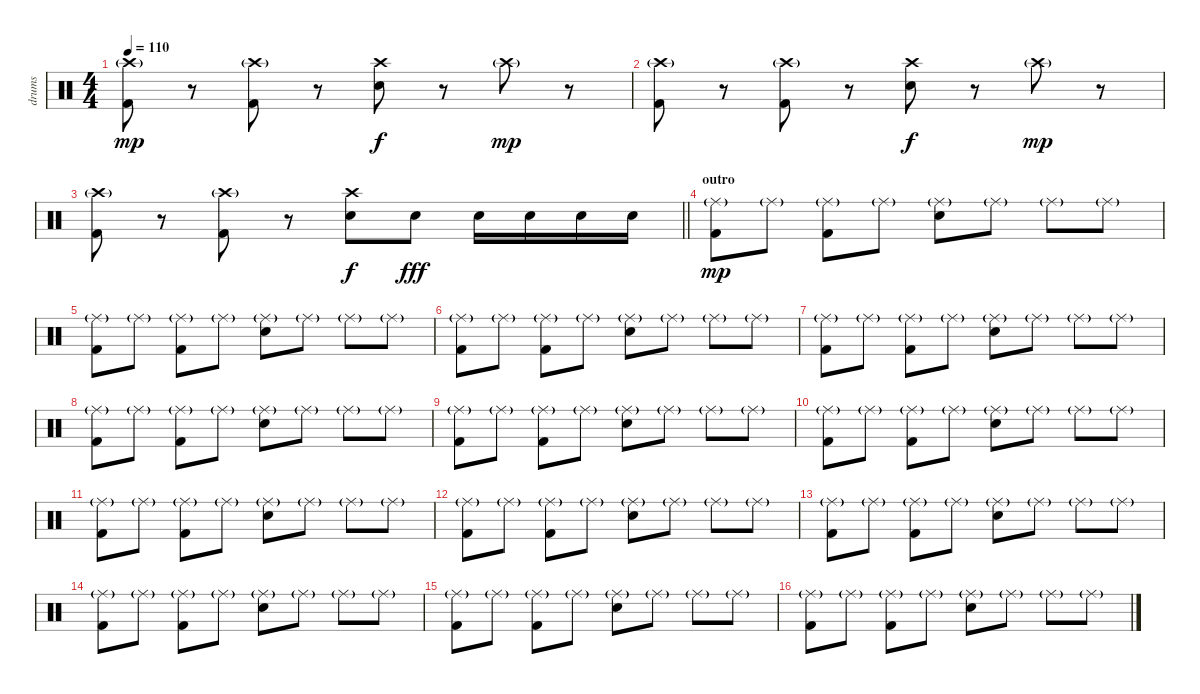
\track ("drums" "drums") {instrument percussion}
\staff {score}
\articulation defaults
\ts (4 4)
\tempo 110
\clef neutral
\ks c
("Kick (hit) 2" "Crash high (hit)"{g}).8{dy mp} r.8 ("Kick (hit) 2" "Crash high (hit)"{g}).8 r.8 ("Electric Snare (hit)" "Crash high (hit)").8{dy f} r.8 "Crash high (hit)"{g}.8{dy mp} r.8 |
("Kick (hit) 2" "Crash high (hit)"{g}).8 r.8 ("Kick (hit) 2" "Crash high (hit)"{g}).8 r.8 ("Electric Snare (hit)" "Crash high (hit)").8{dy f} r.8 "Crash high (hit)"{g}.8{dy mp} r.8 |
\barLineRight lightlight
("Kick (hit) 2" "Crash high (hit)"{g}).8 r.8 ("Kick (hit) 2" "Crash high (hit)"{g}).8 r.8 ("Electric Snare (hit)" "Crash high (hit)").8{dy f} "Electric Snare (hit)".8{dy fff} "Electric Snare (hit)".16 "Electric Snare (hit)".16 "Electric Snare (hit)".16 "Electric Snare (hit)".16 |
\section ("" "outro")
("Kick (hit) 2" "Ride (middle)"{g}).8{dy mp} "Ride (middle)"{g}.8 ("Kick (hit) 2" "Ride (middle)"{g}).8 "Ride (middle)"{g}.8 ("Electric Snare (hit)" "Ride (middle)"{g}).8 "Ride (middle)"{g}.8 "Ride (middle)"{g}.8 "Ride (middle)"{g}.8 |
("Kick (hit) 2" "Ride (middle)"{g}).8 "Ride (middle)"{g}.8 ("Kick (hit) 2" "Ride (middle)"{g}).8 "Ride (middle)"{g}.8 ("Electric Snare (hit)" "Ride (middle)"{g}).8 "Ride (middle)"{g}.8 "Ride (middle)"{g}.8 "Ride (middle)"{g}.8 |
("Kick (hit) 2" "Ride (middle)"{g}).8 "Ride (middle)"{g}.8 ("Kick (hit) 2" "Ride (middle)"{g}).8 "Ride (middle)"{g}.8 ("Electric Snare (hit)" "Ride (middle)"{g}).8 "Ride (middle)"{g}.8 "Ride (middle)"{g}.8 "Ride (middle)"{g}.8 |
("Kick (hit) 2" "Ride (middle)"{g}).8 "Ride (middle)"{g}.8 ("Kick (hit) 2" "Ride (middle)"{g}).8 "Ride (middle)"{g}.8 ("Electric Snare (hit)" "Ride (middle)"{g}).8 "Ride (middle)"{g}.8 "Ride (middle)"{g}.8 "Ride (middle)"{g}.8 |
("Kick (hit) 2" "Ride (middle)"{g}).8 "Ride (middle)"{g}.8 ("Kick (hit) 2" "Ride (middle)"{g}).8 "Ride (middle)"{g}.8 ("Electric Snare (hit)" "Ride (middle)"{g}).8 "Ride (middle)"{g}.8 "Ride (middle)"{g}.8 "Ride (middle)"{g}.8 |
("Kick (hit) 2" "Ride (middle)"{g}).8 "Ride (middle)"{g}.8 ("Kick (hit) 2" "Ride (middle)"{g}).8 "Ride (middle)"{g}.8 ("Electric Snare (hit)" "Ride (middle)"{g}).8 "Ride (middle)"{g}.8 "Ride (middle)"{g}.8 "Ride (middle)"{g}.8 |
("Kick (hit) 2" "Ride (middle)"{g}).8 "Ride (middle)"{g}.8 ("Kick (hit) 2" "Ride (middle)"{g}).8 "Ride (middle)"{g}.8 ("Electric Snare (hit)" "Ride (middle)"{g}).8 "Ride (middle)"{g}.8 "Ride (middle)"{g}.8 "Ride (middle)"{g}.8 |
("Kick (hit) 2" "Ride (middle)"{g}).8 "Ride (middle)"{g}.8 ("Kick (hit) 2" "Ride (middle)"{g}).8 "Ride (middle)"{g}.8 ("Electric Snare (hit)" "Ride (middle)"{g}).8 "Ride (middle)"{g}.8 "Ride (middle)"{g}.8 "Ride (middle)"{g}.8 |
("Kick (hit) 2" "Ride (middle)"{g}).8 "Ride (middle)"{g}.8 ("Kick (hit) 2" "Ride (middle)"{g}).8 "Ride (middle)"{g}.8 ("Electric Snare (hit)" "Ride (middle)"{g}).8 "Ride (middle)"{g}.8 "Ride (middle)"{g}.8 "Ride (middle)"{g}.8 |
("Kick (hit) 2" "Ride (middle)"{g}).8 "Ride (middle)"{g}.8 ("Kick (hit) 2" "Ride (middle)"{g}).8 "Ride (middle)"{g}.8 ("Electric Snare (hit)" "Ride (middle)"{g}).8 "Ride (middle)"{g}.8 "Ride (middle)"{g}.8 "Ride (middle)"{g}.8 |
("Kick (hit) 2" "Ride (middle)"{g}).8 "Ride (middle)"{g}.8 ("Kick (hit) 2" "Ride (middle)"{g}).8 "Ride (middle)"{g}.8 ("Electric Snare (hit)" "Ride (middle)"{g}).8 "Ride (middle)"{g}.8 "Ride (middle)"{g}.8 "Ride (middle)"{g}.8 |
("Kick (hit) 2" "Ride (middle)"{g}).8 "Ride (middle)"{g}.8 ("Kick (hit) 2" "Ride (middle)"{g}).8 "Ride (middle)"{g}.8 ("Electric Snare (hit)" "Ride (middle)"{g}).8 "Ride (middle)"{g}.8 "Ride (middle)"{g}.8 "Ride (middle)"{g}.8 |
("Kick (hit) 2" "Ride (middle)"{g}).8 "Ride (middle)"{g}.8 ("Kick (hit) 2" "Ride (middle)"{g}).8 "Ride (middle)"{g}.8 ("Electric Snare (hit)" "Ride (middle)"{g}).8 "Ride (middle)"{g}.8 "Ride (middle)"{g}.8 "Ride (middle)"{g}.8
